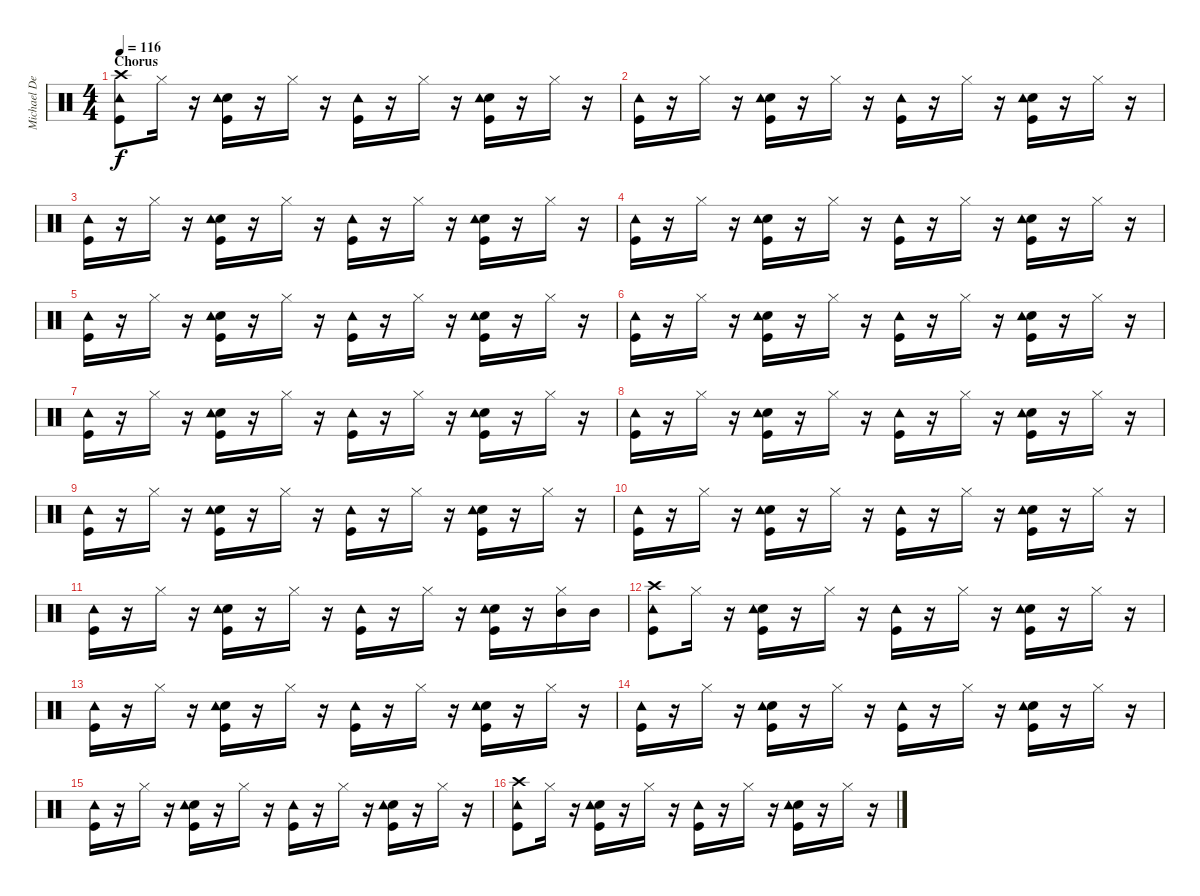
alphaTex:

\track ("Michael DeRosier" "Michael De") {instrument percussion}
\staff {score}
\articulation defaults
\ts (4 4)
\section ("" "Chorus")
\tempo 116
\clef neutral
\ks c
("Kick (hit)" "Crash high (hit)" "Tambourine (hit)").8{dy f} "Hi-Hat (closed)".16 r.16 ("Kick (hit)" "Electric Snare (hit)" "Tambourine (hit)").16 r.16 "Hi-Hat (closed)".16 r.16 ("Kick (hit)" "Tambourine (hit)").16 r.16 "Hi-Hat (closed)".16 r.16 ("Kick (hit)" "Electric Snare (hit)" "Tambourine (hit)").16 r.16 "Hi-Hat (closed)".16 r.16 |
("Kick (hit)" "Tambourine (hit)").16 r.16 "Hi-Hat (closed)".16 r.16 ("Kick (hit)" "Electric Snare (hit)" "Tambourine (hit)").16 r.16 "Hi-Hat (closed)".16 r.16 ("Kick (hit)" "Tambourine (hit)").16 r.16 "Hi-Hat (closed)".16 r.16 ("Kick (hit)" "Electric Snare (hit)" "Tambourine (hit)").16 r.16 "Hi-Hat (closed)".16 r.16 |
("Kick (hit)" "Tambourine (hit)").16 r.16 "Hi-Hat (closed)".16 r.16 ("Kick (hit)" "Electric Snare (hit)" "Tambourine (hit)").16 r.16 "Hi-Hat (closed)".16 r.16 ("Kick (hit)" "Tambourine (hit)").16 r.16 "Hi-Hat (closed)".16 r.16 ("Kick (hit)" "Electric Snare (hit)" "Tambourine (hit)").16 r.16 "Hi-Hat (closed)".16 r.16 |
("Kick (hit)" "Tambourine (hit)").16 r.16 "Hi-Hat (closed)".16 r.16 ("Kick (hit)" "Electric Snare (hit)" "Tambourine (hit)").16 r.16 "Hi-Hat (closed)".16 r.16 ("Kick (hit)" "Tambourine (hit)").16 r.16 "Hi-Hat (closed)".16 r.16 ("Kick (hit)" "Electric Snare (hit)" "Tambourine (hit)").16 r.16 "Hi-Hat (closed)".16 r.16 |
("Kick (hit)" "Tambourine (hit)").16 r.16 "Hi-Hat (closed)".16 r.16 ("Kick (hit)" "Electric Snare (hit)" "Tambourine (hit)").16 r.16 "Hi-Hat (closed)".16 r.16 ("Kick (hit)" "Tambourine (hit)").16 r.16 "Hi-Hat (closed)".16 r.16 ("Kick (hit)" "Electric Snare (hit)" "Tambourine (hit)").16 r.16 "Hi-Hat (closed)".16 r.16 |
("Kick (hit)" "Tambourine (hit)").16 r.16 "Hi-Hat (closed)".16 r.16 ("Kick (hit)" "Electric Snare (hit)" "Tambourine (hit)").16 r.16 "Hi-Hat (closed)".16 r.16 ("Kick (hit)" "Tambourine (hit)").16 r.16 "Hi-Hat (closed)".16 r.16 ("Kick (hit)" "Electric Snare (hit)" "Tambourine (hit)").16 r.16 "Hi-Hat (closed)".16 r.16 |
("Kick (hit)" "Tambourine (hit)").16 r.16 "Hi-Hat (closed)".16 r.16 ("Kick (hit)" "Electric Snare (hit)" "Tambourine (hit)").16 r.16 "Hi-Hat (closed)".16 r.16 ("Kick (hit)" "Tambourine (hit)").16 r.16 "Hi-Hat (closed)".16 r.16 ("Kick (hit)" "Electric Snare (hit)" "Tambourine (hit)").16 r.16 "Hi-Hat (closed)".16 r.16 |
("Kick (hit)" "Tambourine (hit)").16 r.16 "Hi-Hat (closed)".16 r.16 ("Kick (hit)" "Electric Snare (hit)" "Tambourine (hit)").16 r.16 "Hi-Hat (closed)".16 r.16 ("Kick (hit)" "Tambourine (hit)").16 r.16 "Hi-Hat (closed)".16 r.16 ("Kick (hit)" "Electric Snare (hit)" "Tambourine (hit)").16 r.16 "Hi-Hat (closed)".16 r.16 |
("Kick (hit)" "Tambourine (hit)").16 r.16 "Hi-Hat (closed)".16 r.16 ("Kick (hit)" "Electric Snare (hit)" "Tambourine (hit)").16 r.16 "Hi-Hat (closed)".16 r.16 ("Kick (hit)" "Tambourine (hit)").16 r.16 "Hi-Hat (closed)".16 r.16 ("Kick (hit)" "Electric Snare (hit)" "Tambourine (hit)").16 r.16 "Hi-Hat (closed)".16 r.16 |
("Kick (hit)" "Tambourine (hit)").16 r.16 "Hi-Hat (closed)".16 r.16 ("Kick (hit)" "Electric Snare (hit)" "Tambourine (hit)").16 r.16 "Hi-Hat (closed)".16 r.16 ("Kick (hit)" "Tambourine (hit)").16 r.16 "Hi-Hat (closed)".16 r.16 ("Kick (hit)" "Electric Snare (hit)" "Tambourine (hit)").16 r.16 "Hi-Hat (closed)".16 r.16 |
("Kick (hit)" "Tambourine (hit)").16 r.16 "Hi-Hat (closed)".16 r.16 ("Kick (hit)" "Electric Snare (hit)" "Tambourine (hit)").16 r.16 "Hi-Hat (closed)".16 r.16 ("Kick (hit)" "Tambourine (hit)").16 r.16 "Hi-Hat (closed)".16 r.16 ("Kick (hit)" "Electric Snare (hit)" "Tambourine (hit)").16 r.16 ("Mid Tom (hit)" "Hi-Hat (closed)").16 "Mid Tom (hit)".16 |
("Kick (hit)" "Crash high (hit)" "Tambourine (hit)").8 "Hi-Hat (closed)".16 r.16 ("Kick (hit)" "Electric Snare (hit)" "Tambourine (hit)").16 r.16 "Hi-Hat (closed)".16 r.16 ("Kick (hit)" "Tambourine (hit)").16 r.16 "Hi-Hat (closed)".16 r.16 ("Kick (hit)" "Electric Snare (hit)" "Tambourine (hit)").16 r.16 "Hi-Hat (closed)".16 r.16 |
("Kick (hit)" "Tambourine (hit)").16 r.16 "Hi-Hat (closed)".16 r.16 ("Kick (hit)" "Electric Snare (hit)" "Tambourine (hit)").16 r.16 "Hi-Hat (closed)".16 r.16 ("Kick (hit)" "Tambourine (hit)").16 r.16 "Hi-Hat (closed)".16 r.16 ("Kick (hit)" "Electric Snare (hit)" "Tambourine (hit)").16 r.16 "Hi-Hat (closed)".16 r.16 |
("Kick (hit)" "Tambourine (hit)").16 r.16 "Hi-Hat (closed)".16 r.16 ("Kick (hit)" "Electric Snare (hit)" "Tambourine (hit)").16 r.16 "Hi-Hat (closed)".16 r.16 ("Kick (hit)" "Tambourine (hit)").16 r.16 "Hi-Hat (closed)".16 r.16 ("Kick (hit)" "Electric Snare (hit)" "Tambourine (hit)").16 r.16 "Hi-Hat (closed)".16 r.16 |
("Kick (hit)" "Tambourine (hit)").16 r.16 "Hi-Hat (closed)".16 r.16 ("Kick (hit)" "Electric Snare (hit)" "Tambourine (hit)").16 r.16 "Hi-Hat (closed)".16 r.16 ("Kick (hit)" "Tambourine (hit)").16 r.16 "Hi-Hat (closed)".16 r.16 ("Kick (hit)" "Electric Snare (hit)" "Tambourine (hit)").16 r.16 "Hi-Hat (closed)".16 r.16 |
("Kick (hit)" "Crash high (hit)" "Tambourine (hit)").8 "Hi-Hat (closed)".16 r.16 ("Kick (hit)" "Electric Snare (hit)" "Tambourine (hit)").16 r.16 "Hi-Hat (closed)".16 r.16 ("Kick (hit)" "Tambourine (hit)").16 r.16 "Hi-Hat (closed)".16 r.16 ("Kick (hit)" "Electric Snare (hit)" "Tambourine (hit)").16 r.16 "Hi-Hat (closed)".16 r.16
